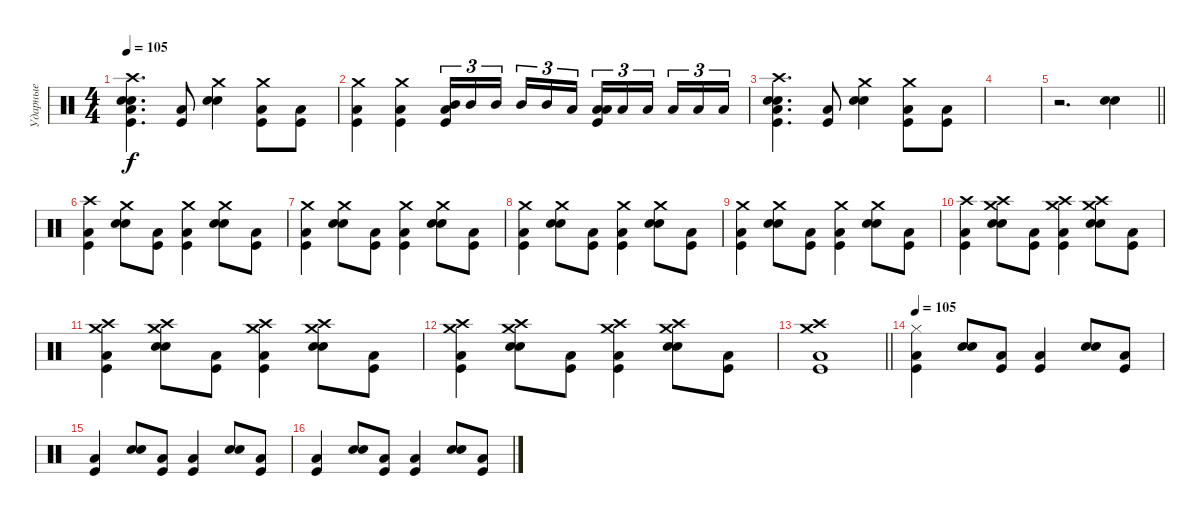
\track ("Ударные" "Ударные") {instrument percussion}
\staff {score}
\articulation defaults
\ts (4 4)
\tempo 105
\clef neutral
\ks c
("Crash high (hit)" "Electric Snare (hit)" "Snare (hit) 2" "Low Tom (hit)" "Kick (hit)").4{d dy f} ("Low Tom (hit)" "Kick (hit)").8 ("Crash medium (hit)" "Electric Snare (hit)" "Snare (hit) 2").4 ("Crash medium (hit)" "Low Tom (hit)" "Kick (hit)").8 ("Low Tom (hit)" "Kick (hit)").8 |
("Crash medium (hit)" "Low Tom (hit)" "Kick (hit)").4 ("Crash medium (hit)" "Low Tom (hit)" "Kick (hit)").4 ("Mid Tom (hit)" "Low Tom (hit)" "Kick (hit)").16{tu (3 2)} "Mid Tom (hit)".16{tu (3 2)} "Mid Tom (hit)".16{tu (3 2) beam splitsecondary} "Mid Tom (hit)".16{tu (3 2)} "Mid Tom (hit)".16{tu (3 2)} "Low Tom (hit)".16{tu (3 2)} ("Low Tom (hit)" "Kick (hit)" "Low Tom (hit)").16{tu (3 2)} "Low Tom (hit)".16{tu (3 2)} "Low Tom (hit)".16{tu (3 2) beam splitsecondary} "Low Tom (hit)".16{tu (3 2)} "Low Tom (hit)".16{tu (3 2)} "Low Tom (hit)".16{tu (3 2)} |
("Crash high (hit)" "Electric Snare (hit)" "Snare (hit) 2" "Low Tom (hit)" "Kick (hit)").4{d} ("Low Tom (hit)" "Kick (hit)").8 ("Crash medium (hit)" "Electric Snare (hit)" "Snare (hit) 2").4 ("Crash medium (hit)" "Low Tom (hit)" "Kick (hit)").8 ("Low Tom (hit)" "Kick (hit)").8 |
|
\barLineRight lightlight
r.2{d} ("Electric Snare (hit)" "Snare (hit) 2").4 |
("Crash high (hit)" "Low Tom (hit)" "Kick (hit)").4 ("Crash medium (hit)" "Electric Snare (hit)" "Snare (hit) 2").8 ("Low Tom (hit)" "Kick (hit)").8 ("Crash medium (hit)" "Low Tom (hit)" "Kick (hit)").4 ("Crash medium (hit)" "Electric Snare (hit)" "Snare (hit) 2").8 ("Low Tom (hit)" "Kick (hit)").8 |
("Crash medium (hit)" "Low Tom (hit)" "Kick (hit)").4 ("Crash medium (hit)" "Electric Snare (hit)" "Snare (hit) 2").8 ("Low Tom (hit)" "Kick (hit)").8 ("Crash medium (hit)" "Low Tom (hit)" "Kick (hit)").4 ("Crash medium (hit)" "Electric Snare (hit)" "Snare (hit) 2").8 ("Low Tom (hit)" "Kick (hit)").8 |
("Crash medium (hit)" "Low Tom (hit)" "Kick (hit)").4 ("Crash medium (hit)" "Electric Snare (hit)" "Snare (hit) 2").8 ("Low Tom (hit)" "Kick (hit)").8 ("Crash medium (hit)" "Low Tom (hit)" "Kick (hit)").4 ("Crash medium (hit)" "Electric Snare (hit)" "Snare (hit) 2").8 ("Low Tom (hit)" "Kick (hit)").8 |
("Crash medium (hit)" "Low Tom (hit)" "Kick (hit)").4 ("Crash medium (hit)" "Electric Snare (hit)" "Snare (hit) 2").8 ("Low Tom (hit)" "Kick (hit)").8 ("Crash medium (hit)" "Low Tom (hit)" "Kick (hit)").4 ("Crash medium (hit)" "Electric Snare (hit)" "Snare (hit) 2").8 ("Low Tom (hit)" "Kick (hit)").8 |
("Crash high (hit)" "Low Tom (hit)" "Kick (hit)").4 ("Crash medium (hit)" "Electric Snare (hit)" "Snare (hit) 2" "Crash high (hit)").8 ("Low Tom (hit)" "Kick (hit)").8 ("Crash medium (hit)" "Low Tom (hit)" "Kick (hit)" "Crash high (hit)").4 ("Crash medium (hit)" "Electric Snare (hit)" "Snare (hit) 2" "Crash high (hit)").8 ("Low Tom (hit)" "Kick (hit)").8 |
("Crash medium (hit)" "Low Tom (hit)" "Kick (hit)" "Crash high (hit)").4 ("Crash medium (hit)" "Electric Snare (hit)" "Snare (hit) 2" "Crash high (hit)").8 ("Low Tom (hit)" "Kick (hit)").8 ("Crash medium (hit)" "Low Tom (hit)" "Kick (hit)" "Crash high (hit)").4 ("Crash medium (hit)" "Electric Snare (hit)" "Snare (hit) 2" "Crash high (hit)").8 ("Low Tom (hit)" "Kick (hit)").8 |
("Crash medium (hit)" "Low Tom (hit)" "Kick (hit)" "Crash high (hit)").4 ("Crash medium (hit)" "Electric Snare (hit)" "Snare (hit) 2" "Crash high (hit)").8 ("Low Tom (hit)" "Kick (hit)").8 ("Crash medium (hit)" "Low Tom (hit)" "Kick (hit)" "Crash high (hit)").4 ("Crash medium (hit)" "Electric Snare (hit)" "Snare (hit) 2" "Crash high (hit)").8 ("Low Tom (hit)" "Kick (hit)").8 |
\barLineRight lightlight
("Crash medium (hit)" "Low Tom (hit)" "Kick (hit)" "Crash high (hit)").1 |
\tempo 105
("Hi-Hat (closed)" "Low Tom (hit)" "Kick (hit)").4 ("Electric Snare (hit)" "Snare (hit) 2").8 ("Low Tom (hit)" "Kick (hit)").8 ("Low Tom (hit)" "Kick (hit)").4 ("Electric Snare (hit)" "Snare (hit) 2").8 ("Low Tom (hit)" "Kick (hit)").8 |
("Low Tom (hit)" "Kick (hit)").4 ("Electric Snare (hit)" "Snare (hit) 2").8 ("Low Tom (hit)" "Kick (hit)").8 ("Low Tom (hit)" "Kick (hit)").4 ("Electric Snare (hit)" "Snare (hit) 2").8 ("Low Tom (hit)" "Kick (hit)").8 |
("Low Tom (hit)" "Kick (hit)").4 ("Electric Snare (hit)" "Snare (hit) 2").8 ("Low Tom (hit)" "Kick (hit)").8 ("Low Tom (hit)" "Kick (hit)").4 ("Electric Snare (hit)" "Snare (hit) 2").8 ("Low Tom (hit)" "Kick (hit)").8
